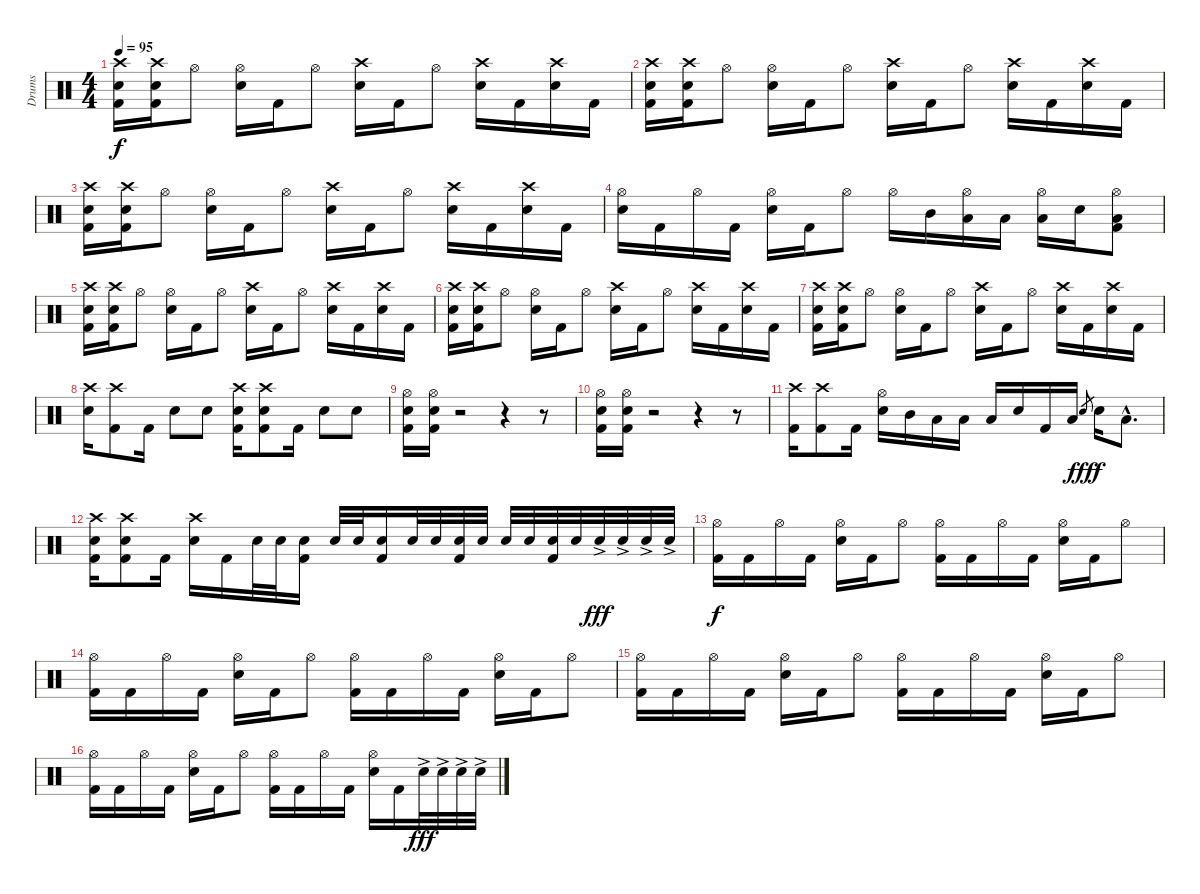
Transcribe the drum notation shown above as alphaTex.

\track ("Drums" "Drums") {instrument percussion}
\staff {score}
\articulation defaults
\ts (4 4)
\tempo 95
\clef neutral
\ks c
("Crash high (hit)" "Electric Snare (hit)" "Kick (hit) 2").16{dy f} ("Crash high (hit)" "Electric Snare (hit)" "Kick (hit) 2").16 "Hi-Hat (open)".8 ("Hi-Hat (open)" "Electric Snare (hit)").16 "Kick (hit) 2".16 "Hi-Hat (open)".8 ("Crash high (hit)" "Electric Snare (hit)").16 "Kick (hit) 2".16 "Hi-Hat (open)".8 ("Crash high (hit)" "Electric Snare (hit)").16 "Kick (hit) 2".16 ("Crash high (hit)" "Electric Snare (hit)").16 "Kick (hit) 2".16 |
("Crash high (hit)" "Electric Snare (hit)" "Kick (hit) 2").16 ("Crash high (hit)" "Electric Snare (hit)" "Kick (hit) 2").16 "Hi-Hat (open)".8 ("Hi-Hat (open)" "Electric Snare (hit)").16 "Kick (hit) 2".16 "Hi-Hat (open)".8 ("Crash high (hit)" "Electric Snare (hit)").16 "Kick (hit) 2".16 "Hi-Hat (open)".8 ("Crash high (hit)" "Electric Snare (hit)").16 "Kick (hit) 2".16 ("Crash high (hit)" "Electric Snare (hit)").16 "Kick (hit) 2".16 |
("Crash high (hit)" "Electric Snare (hit)" "Kick (hit) 2").16 ("Crash high (hit)" "Electric Snare (hit)" "Kick (hit) 2").16 "Hi-Hat (open)".8 ("Hi-Hat (open)" "Electric Snare (hit)").16 "Kick (hit) 2".16 "Hi-Hat (open)".8 ("Crash high (hit)" "Electric Snare (hit)").16 "Kick (hit) 2".16 "Hi-Hat (open)".8 ("Crash high (hit)" "Electric Snare (hit)").16 "Kick (hit) 2".16 ("Crash high (hit)" "Electric Snare (hit)").16 "Kick (hit) 2".16 |
("Hi-Hat (open)" "Electric Snare (hit)").16 "Kick (hit) 2".16 "Hi-Hat (open)".16 "Kick (hit) 2".16 ("Hi-Hat (open)" "Electric Snare (hit)").16 "Kick (hit) 2".16 "Hi-Hat (open)".8 "Hi-Hat (open)".16 "Mid Tom (hit)".16 ("Hi-Hat (open)" "Low Tom (hit)").16 "Low Floor Tom (hit)".16 ("Hi-Hat (open)" "Low Floor Tom (hit)").16 "Electric Snare (hit)".16 ("Hi-Hat (open)" "Low Floor Tom (hit)" "Kick (hit) 2").8 |
("Crash high (hit)" "Electric Snare (hit)" "Kick (hit) 2").16 ("Crash high (hit)" "Electric Snare (hit)" "Kick (hit) 2").16 "Hi-Hat (open)".8 ("Hi-Hat (open)" "Electric Snare (hit)").16 "Kick (hit) 2".16 "Hi-Hat (open)".8 ("Crash high (hit)" "Electric Snare (hit)").16 "Kick (hit) 2".16 "Hi-Hat (open)".8 ("Crash high (hit)" "Electric Snare (hit)").16 "Kick (hit) 2".16 ("Crash high (hit)" "Electric Snare (hit)").16 "Kick (hit) 2".16 |
("Crash high (hit)" "Electric Snare (hit)" "Kick (hit) 2").16 ("Crash high (hit)" "Electric Snare (hit)" "Kick (hit) 2").16 "Hi-Hat (open)".8 ("Hi-Hat (open)" "Electric Snare (hit)").16 "Kick (hit) 2".16 "Hi-Hat (open)".8 ("Crash high (hit)" "Electric Snare (hit)").16 "Kick (hit) 2".16 "Hi-Hat (open)".8 ("Crash high (hit)" "Electric Snare (hit)").16 "Kick (hit) 2".16 ("Crash high (hit)" "Electric Snare (hit)").16 "Kick (hit) 2".16 |
("Crash high (hit)" "Electric Snare (hit)" "Kick (hit) 2").16 ("Crash high (hit)" "Electric Snare (hit)" "Kick (hit) 2").16 "Hi-Hat (open)".8 ("Hi-Hat (open)" "Electric Snare (hit)").16 "Kick (hit) 2".16 "Hi-Hat (open)".8 ("Crash high (hit)" "Electric Snare (hit)").16 "Kick (hit) 2".16 "Hi-Hat (open)".8 ("Crash high (hit)" "Electric Snare (hit)").16 "Kick (hit) 2".16 ("Crash high (hit)" "Electric Snare (hit)").16 "Kick (hit) 2".16 |
("Crash high (hit)" "Electric Snare (hit)").16 ("Crash high (hit)" "Kick (hit) 2").8 "Kick (hit) 2".16 "Electric Snare (hit)".8 "Electric Snare (hit)".8 ("Crash high (hit)" "Electric Snare (hit)" "Kick (hit) 2").16 ("Crash high (hit)" "Electric Snare (hit)" "Kick (hit) 2").8 "Kick (hit) 2".16 "Electric Snare (hit)".8 "Electric Snare (hit)".8 |
("Hi-Hat (open)" "Electric Snare (hit)" "Kick (hit) 2").16 ("Hi-Hat (open)" "Electric Snare (hit)" "Kick (hit) 2").16 r.2 r.4 r.8 |
("Hi-Hat (open)" "Electric Snare (hit)" "Kick (hit) 2").16 ("Hi-Hat (open)" "Electric Snare (hit)" "Kick (hit) 2").16 r.2 r.4 r.8 |
("Crash high (hit)" "Kick (hit) 2").16 ("Crash high (hit)" "Kick (hit) 2").8 "Kick (hit) 2".16 ("Hi-Hat (open)" "Electric Snare (hit)").16 "Mid Tom (hit)".16 "Low Tom (hit)".16 "Low Floor Tom (hit)".16 "Low Floor Tom (hit)".16 "Electric Snare (hit)".16 "Kick (hit) 2".16 "Low Floor Tom (hit)".16 "Electric Snare (hit)".8{gr dy fff} "Electric Snare (hit)".16{dy f} "Low Floor Tom (hit)"{hac}.8{d} |
("Crash high (hit)" "Electric Snare (hit)" "Kick (hit) 2").16 ("Crash high (hit)" "Electric Snare (hit)" "Kick (hit) 2").8 "Kick (hit) 2".16 ("Crash high (hit)" "Electric Snare (hit)").16 "Kick (hit) 2".16 "Electric Snare (hit)".32 "Electric Snare (hit)".32 ("Electric Snare (hit)" "Kick (hit) 2").16 "Electric Snare (hit)".32 "Electric Snare (hit)".32 ("Electric Snare (hit)" "Kick (hit) 2").16 "Electric Snare (hit)".32 "Electric Snare (hit)".32 ("Electric Snare (hit)" "Kick (hit) 2").32 "Electric Snare (hit)".32 "Electric Snare (hit)".32 "Electric Snare (hit)".32 ("Electric Snare (hit)" "Kick (hit) 2").32 "Electric Snare (hit)".32 "Electric Snare (hit)"{ac}.32{dy fff} "Electric Snare (hit)"{ac}.32 "Electric Snare (hit)"{ac}.32 "Electric Snare (hit)"{ac}.32 |
("Hi-Hat (open)" "Kick (hit) 2").16{dy f} "Kick (hit) 2".16 "Hi-Hat (open)".16 "Kick (hit) 2".16 ("Hi-Hat (open)" "Electric Snare (hit)").16 "Kick (hit) 2".16 "Hi-Hat (open)".8 ("Hi-Hat (open)" "Kick (hit) 2").16 "Kick (hit) 2".16 "Hi-Hat (open)".16 "Kick (hit) 2".16 ("Hi-Hat (open)" "Electric Snare (hit)").16 "Kick (hit) 2".16 "Hi-Hat (open)".8 |
("Hi-Hat (open)" "Kick (hit) 2").16 "Kick (hit) 2".16 "Hi-Hat (open)".16 "Kick (hit) 2".16 ("Hi-Hat (open)" "Electric Snare (hit)").16 "Kick (hit) 2".16 "Hi-Hat (open)".8 ("Hi-Hat (open)" "Kick (hit) 2").16 "Kick (hit) 2".16 "Hi-Hat (open)".16 "Kick (hit) 2".16 ("Hi-Hat (open)" "Electric Snare (hit)").16 "Kick (hit) 2".16 "Hi-Hat (open)".8 |
("Hi-Hat (open)" "Kick (hit) 2").16 "Kick (hit) 2".16 "Hi-Hat (open)".16 "Kick (hit) 2".16 ("Hi-Hat (open)" "Electric Snare (hit)").16 "Kick (hit) 2".16 "Hi-Hat (open)".8 ("Hi-Hat (open)" "Kick (hit) 2").16 "Kick (hit) 2".16 "Hi-Hat (open)".16 "Kick (hit) 2".16 ("Hi-Hat (open)" "Electric Snare (hit)").16 "Kick (hit) 2".16 "Hi-Hat (open)".8 |
("Hi-Hat (open)" "Kick (hit) 2").16 "Kick (hit) 2".16 "Hi-Hat (open)".16 "Kick (hit) 2".16 ("Hi-Hat (open)" "Electric Snare (hit)").16 "Kick (hit) 2".16 "Hi-Hat (open)".8 ("Hi-Hat (open)" "Kick (hit) 2").16 "Kick (hit) 2".16 "Hi-Hat (open)".16 "Kick (hit) 2".16 ("Hi-Hat (open)" "Electric Snare (hit)").16 "Kick (hit) 2".16 "Electric Snare (hit)"{ac}.32{dy fff} "Electric Snare (hit)"{ac}.32 "Electric Snare (hit)"{ac}.32 "Electric Snare (hit)"{ac}.32
